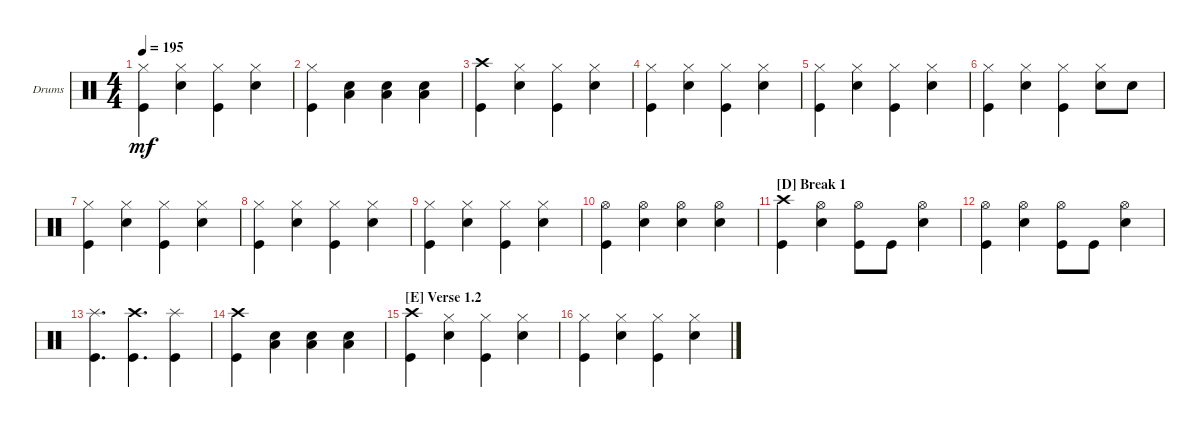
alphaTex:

\defaultSystemsLayout 4
\bracketExtendMode groupsimilarinstruments
\firstSystemTrackNameOrientation horizontal
\otherSystemsTrackNameOrientation horizontal
\track ("Drumkit" "Drums") {instrument percussion}
\staff {score}
\articulation defaults
\ts (4 4)
\tempo 195
\clef neutral
\ks c
("Kick (hit)" "Hi-Hat (closed)").4{dy mf} ("Snare (hit) 2" "Hi-Hat (closed)").4 ("Kick (hit)" "Hi-Hat (closed)").4 ("Snare (hit) 2" "Hi-Hat (closed)").4 |
("Hi-Hat (closed)" "Kick (hit)").4 ("Snare (hit) 2" "Low Tom (hit)").4 ("Snare (hit) 2" "Low Tom (hit)").4 ("Snare (hit) 2" "Low Tom (hit)").4 |
("Crash high (hit)" "Kick (hit)").4 ("Snare (hit) 2" "Hi-Hat (closed)").4 ("Kick (hit)" "Hi-Hat (closed)").4 ("Snare (hit) 2" "Hi-Hat (closed)").4 |
("Kick (hit)" "Hi-Hat (closed)").4 ("Snare (hit) 2" "Hi-Hat (closed)").4 ("Kick (hit)" "Hi-Hat (closed)").4 ("Snare (hit) 2" "Hi-Hat (closed)").4 |
("Kick (hit)" "Hi-Hat (closed)").4 ("Snare (hit) 2" "Hi-Hat (closed)").4 ("Kick (hit)" "Hi-Hat (closed)").4 ("Snare (hit) 2" "Hi-Hat (closed)").4 |
("Kick (hit)" "Hi-Hat (closed)").4 ("Snare (hit) 2" "Hi-Hat (closed)").4 ("Kick (hit)" "Hi-Hat (closed)").4 ("Snare (hit) 2" "Hi-Hat (closed)").8 "Snare (hit) 2".8 |
("Kick (hit)" "Hi-Hat (closed)").4 ("Snare (hit) 2" "Hi-Hat (closed)").4 ("Kick (hit)" "Hi-Hat (closed)").4 ("Snare (hit) 2" "Hi-Hat (closed)").4 |
("Kick (hit)" "Hi-Hat (closed)").4 ("Snare (hit) 2" "Hi-Hat (closed)").4 ("Kick (hit)" "Hi-Hat (closed)").4 ("Snare (hit) 2" "Hi-Hat (closed)").4 |
("Kick (hit)" "Hi-Hat (closed)").4 ("Snare (hit) 2" "Hi-Hat (closed)").4 ("Kick (hit)" "Hi-Hat (closed)").4 ("Snare (hit) 2" "Hi-Hat (closed)").4 |
("Hi-Hat (open)" "Kick (hit)").4 ("Snare (hit) 2" "Hi-Hat (open)").4 ("Snare (hit) 2" "Hi-Hat (open)").4 ("Snare (hit) 2" "Hi-Hat (open)").4 |
\section ("D" "Break 1")
("Kick (hit)" "Crash high (hit)").4 ("Snare (hit) 2" "Hi-Hat (open)").4 ("Kick (hit)" "Hi-Hat (open)").8 "Kick (hit)".8 ("Snare (hit) 2" "Hi-Hat (open)").4 |
("Kick (hit)" "Hi-Hat (open)").4 ("Snare (hit) 2" "Hi-Hat (open)").4 ("Kick (hit)" "Hi-Hat (open)").8 "Kick (hit)".8 ("Snare (hit) 2" "Hi-Hat (open)").4 |
("Kick (hit)" "Splash (hit)").4{d} ("Kick (hit)" "Crash high (hit)").4{d} ("Kick (hit)" "Splash (hit)").4 |
("Crash high (hit)" "Kick (hit)").4 ("Low Tom (hit)" "Snare (hit) 2").4 ("Low Tom (hit)" "Snare (hit) 2").4 ("Low Tom (hit)" "Snare (hit) 2").4 |
\section ("E" "Verse 1.2")
("Crash high (hit)" "Kick (hit)").4 ("Snare (hit) 2" "Hi-Hat (closed)").4 ("Kick (hit)" "Hi-Hat (closed)").4 ("Snare (hit) 2" "Hi-Hat (closed)").4 |
("Kick (hit)" "Hi-Hat (closed)").4 ("Snare (hit) 2" "Hi-Hat (closed)").4 ("Kick (hit)" "Hi-Hat (closed)").4 ("Snare (hit) 2" "Hi-Hat (closed)").4
